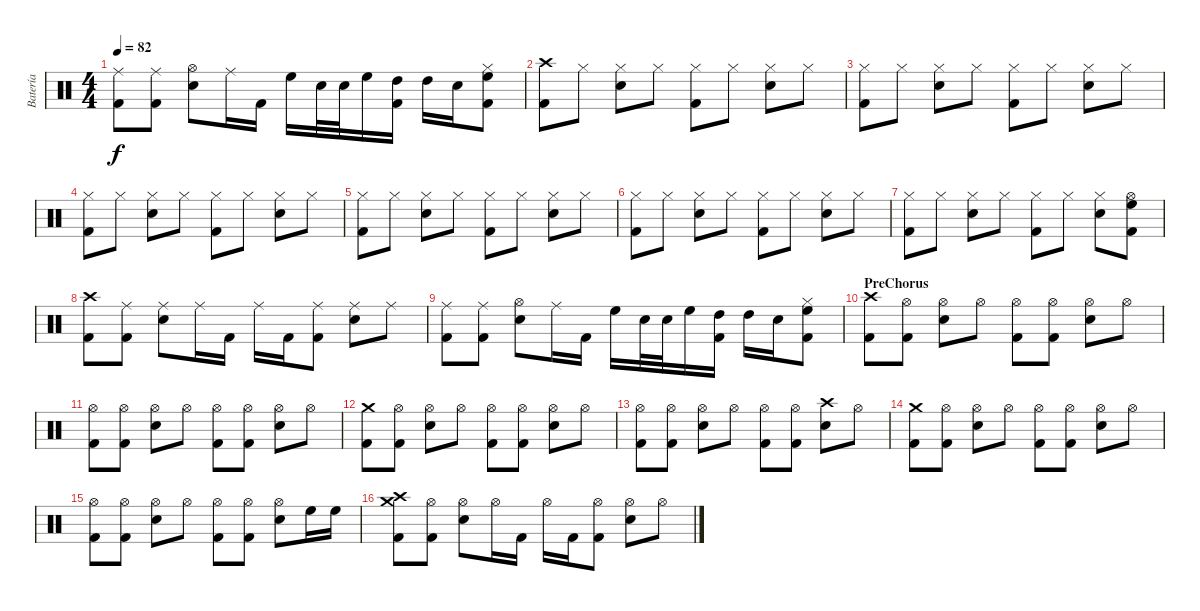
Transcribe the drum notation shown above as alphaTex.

\track ("Batería" "Batería") {instrument percussion}
\staff {score}
\articulation defaults
\ts (4 4)
\tempo 82
\clef neutral
\ks c
("Ride (middle)" "Kick (hit) 2").8{dy f} ("Ride (middle)" "Kick (hit) 2").8 ("Hi-Hat (open)" "Electric Snare (hit)").8 "Ride (middle)".16 "Kick (hit) 2".16 "High Floor Tom (hit)".16 "Electric Snare (hit)".32 "Electric Snare (hit)".32 "High Floor Tom (hit)".16 ("Kick (hit) 2" "High Tom (hit)").16 "High Tom (hit)".16 "Electric Snare (hit)".16 ("Kick (hit) 2" "High Floor Tom (hit)" "Hi-Hat (closed)").8 |
("Crash high (hit)" "Kick (hit) 2").8 "Hi-Hat (closed)".8 ("Hi-Hat (closed)" "Electric Snare (hit)").8 "Hi-Hat (closed)".8 ("Hi-Hat (closed)" "Kick (hit) 2").8 "Hi-Hat (closed)".8 ("Hi-Hat (closed)" "Electric Snare (hit)").8 "Hi-Hat (closed)".8 |
("Hi-Hat (closed)" "Kick (hit) 2").8 "Hi-Hat (closed)".8 ("Hi-Hat (closed)" "Electric Snare (hit)").8 "Hi-Hat (closed)".8 ("Hi-Hat (closed)" "Kick (hit) 2").8 "Hi-Hat (closed)".8 ("Hi-Hat (closed)" "Electric Snare (hit)").8 "Hi-Hat (closed)".8 |
("Hi-Hat (closed)" "Kick (hit) 2").8 "Hi-Hat (closed)".8 ("Hi-Hat (closed)" "Electric Snare (hit)").8 "Hi-Hat (closed)".8 ("Hi-Hat (closed)" "Kick (hit) 2").8 "Hi-Hat (closed)".8 ("Hi-Hat (closed)" "Electric Snare (hit)").8 "Hi-Hat (closed)".8 |
("Hi-Hat (closed)" "Kick (hit) 2").8 "Hi-Hat (closed)".8 ("Hi-Hat (closed)" "Electric Snare (hit)").8 "Hi-Hat (closed)".8 ("Hi-Hat (closed)" "Kick (hit) 2").8 "Hi-Hat (closed)".8 ("Hi-Hat (closed)" "Electric Snare (hit)").8 "Hi-Hat (closed)".8 |
("Hi-Hat (closed)" "Kick (hit) 2").8 "Hi-Hat (closed)".8 ("Hi-Hat (closed)" "Electric Snare (hit)").8 "Hi-Hat (closed)".8 ("Hi-Hat (closed)" "Kick (hit) 2").8 "Hi-Hat (closed)".8 ("Hi-Hat (closed)" "Electric Snare (hit)").8 "Hi-Hat (closed)".8 |
("Hi-Hat (closed)" "Kick (hit) 2").8 "Hi-Hat (closed)".8 ("Hi-Hat (closed)" "Electric Snare (hit)").8 "Hi-Hat (closed)".8 ("Hi-Hat (closed)" "Kick (hit) 2").8 "Hi-Hat (closed)".8 ("Hi-Hat (closed)" "Electric Snare (hit)").8 ("High Floor Tom (hit)" "Hi-Hat (open)" "Kick (hit) 2").8 |
("Crash high (hit)" "Kick (hit) 2").8 ("Ride (middle)" "Kick (hit) 2").8 ("Ride (middle)" "Electric Snare (hit)").8 "Ride (middle)".16 "Kick (hit) 2".16 "Ride (middle)".16 "Kick (hit) 2".16 ("Ride (middle)" "Kick (hit) 2").8 ("Ride (middle)" "Electric Snare (hit)").8 "Ride (middle)".8 |
("Ride (middle)" "Kick (hit) 2").8 ("Ride (middle)" "Kick (hit) 2").8 ("Hi-Hat (open)" "Electric Snare (hit)").8 "Ride (middle)".16 "Kick (hit) 2".16 "High Floor Tom (hit)".16 "Electric Snare (hit)".32 "Electric Snare (hit)".32 "High Floor Tom (hit)".16 ("Kick (hit) 2" "High Tom (hit)").16 "High Tom (hit)".16 "Electric Snare (hit)".16 ("Kick (hit) 2" "High Floor Tom (hit)" "Hi-Hat (closed)").8 |
\section ("" "PreChorus")
("Crash high (hit)" "Kick (hit) 2").8 ("Hi-Hat (open)" "Kick (hit) 2").8 ("Hi-Hat (open)" "Electric Snare (hit)").8 "Hi-Hat (open)".8 ("Hi-Hat (open)" "Kick (hit) 2").8 ("Hi-Hat (open)" "Kick (hit) 2").8 ("Hi-Hat (open)" "Electric Snare (hit)").8 "Hi-Hat (open)".8 |
("Hi-Hat (open)" "Kick (hit) 2").8 ("Hi-Hat (open)" "Kick (hit) 2").8 ("Hi-Hat (open)" "Electric Snare (hit)").8 "Hi-Hat (open)".8 ("Hi-Hat (open)" "Kick (hit) 2").8 ("Hi-Hat (open)" "Kick (hit) 2").8 ("Hi-Hat (open)" "Electric Snare (hit)").8 "Hi-Hat (open)".8 |
("Crash medium (hit)" "Kick (hit) 2").8 ("Hi-Hat (open)" "Kick (hit) 2").8 ("Hi-Hat (open)" "Electric Snare (hit)").8 "Hi-Hat (open)".8 ("Hi-Hat (open)" "Kick (hit) 2").8 ("Hi-Hat (open)" "Kick (hit) 2").8 ("Hi-Hat (open)" "Electric Snare (hit)").8 "Hi-Hat (open)".8 |
("Hi-Hat (open)" "Kick (hit) 2").8 ("Hi-Hat (open)" "Kick (hit) 2").8 ("Hi-Hat (open)" "Electric Snare (hit)").8 "Hi-Hat (open)".8 ("Hi-Hat (open)" "Kick (hit) 2").8 ("Hi-Hat (open)" "Kick (hit) 2").8 ("Crash high (hit)" "Electric Snare (hit)").8 "Hi-Hat (open)".8 |
("Crash medium (hit)" "Kick (hit) 2").8 ("Hi-Hat (open)" "Kick (hit) 2").8 ("Hi-Hat (open)" "Electric Snare (hit)").8 "Hi-Hat (open)".8 ("Hi-Hat (open)" "Kick (hit) 2").8 ("Hi-Hat (open)" "Kick (hit) 2").8 ("Hi-Hat (open)" "Electric Snare (hit)").8 "Hi-Hat (open)".8 |
("Hi-Hat (open)" "Kick (hit) 2").8 ("Hi-Hat (open)" "Kick (hit) 2").8 ("Hi-Hat (open)" "Electric Snare (hit)").8 "Hi-Hat (open)".8 ("Hi-Hat (open)" "Kick (hit) 2").8 ("Hi-Hat (open)" "Kick (hit) 2").8 ("Hi-Hat (open)" "Electric Snare (hit)").8 "High Floor Tom (hit)".16 "High Floor Tom (hit)".16 |
("Crash medium (hit)" "Crash high (hit)" "Kick (hit) 2").8 ("Hi-Hat (open)" "Kick (hit) 2").8 ("Hi-Hat (open)" "Electric Snare (hit)").8 "Hi-Hat (open)".16 "Kick (hit) 2".16 "Hi-Hat (open)".16 "Kick (hit) 2".16 ("Hi-Hat (open)" "Kick (hit) 2").8 ("Hi-Hat (open)" "Electric Snare (hit)").8 "Hi-Hat (open)".8
